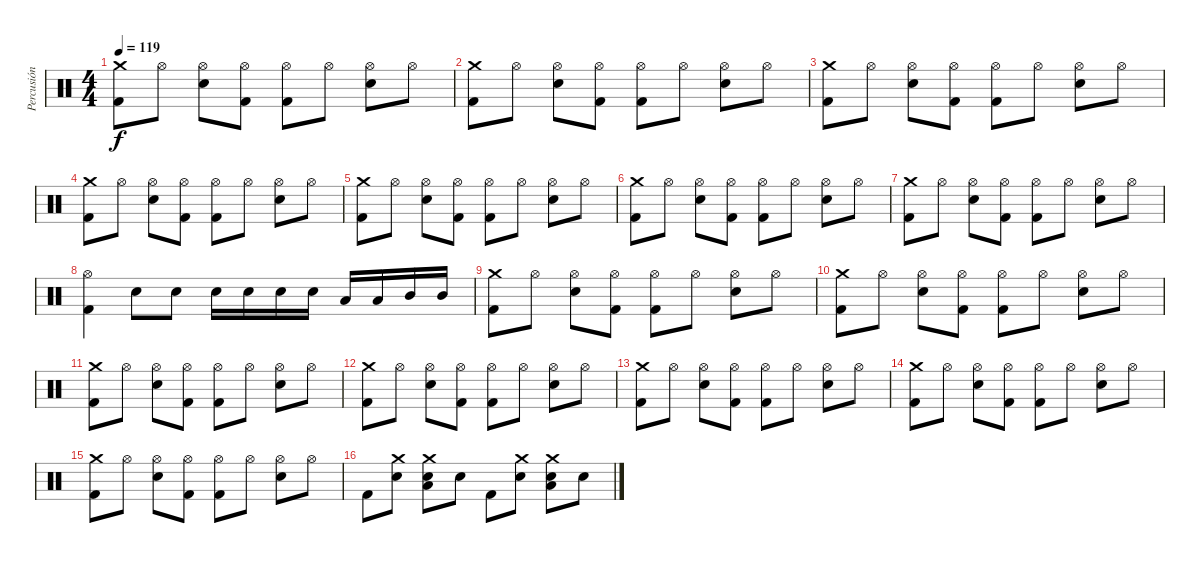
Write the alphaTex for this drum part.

\track ("Percusión" "Percusión") {instrument percussion}
\staff {score}
\articulation defaults
\ts (4 4)
\tempo 119
\clef neutral
\ks c
("Crash medium (hit)" "Kick (hit) 2").8{dy f} "Hi-Hat (open)".8 ("Hi-Hat (open)" "Electric Snare (hit)").8 ("Hi-Hat (open)" "Kick (hit) 2").8 ("Hi-Hat (open)" "Kick (hit) 2").8 "Hi-Hat (open)".8 ("Hi-Hat (open)" "Electric Snare (hit)").8 "Hi-Hat (open)".8 |
("Crash medium (hit)" "Kick (hit) 2").8 "Hi-Hat (open)".8 ("Hi-Hat (open)" "Electric Snare (hit)").8 ("Hi-Hat (open)" "Kick (hit) 2").8 ("Hi-Hat (open)" "Kick (hit) 2").8 "Hi-Hat (open)".8 ("Hi-Hat (open)" "Electric Snare (hit)").8 "Hi-Hat (open)".8 |
("Crash medium (hit)" "Kick (hit) 2").8 "Hi-Hat (open)".8 ("Hi-Hat (open)" "Electric Snare (hit)").8 ("Hi-Hat (open)" "Kick (hit) 2").8 ("Hi-Hat (open)" "Kick (hit) 2").8 "Hi-Hat (open)".8 ("Hi-Hat (open)" "Electric Snare (hit)").8 "Hi-Hat (open)".8 |
("Crash medium (hit)" "Kick (hit) 2").8 "Hi-Hat (open)".8 ("Hi-Hat (open)" "Electric Snare (hit)").8 ("Hi-Hat (open)" "Kick (hit) 2").8 ("Hi-Hat (open)" "Kick (hit) 2").8 "Hi-Hat (open)".8 ("Hi-Hat (open)" "Electric Snare (hit)").8 "Hi-Hat (open)".8 |
("Crash medium (hit)" "Kick (hit) 2").8 "Hi-Hat (open)".8 ("Hi-Hat (open)" "Electric Snare (hit)").8 ("Hi-Hat (open)" "Kick (hit) 2").8 ("Hi-Hat (open)" "Kick (hit) 2").8 "Hi-Hat (open)".8 ("Hi-Hat (open)" "Electric Snare (hit)").8 "Hi-Hat (open)".8 |
("Crash medium (hit)" "Kick (hit) 2").8 "Hi-Hat (open)".8 ("Hi-Hat (open)" "Electric Snare (hit)").8 ("Hi-Hat (open)" "Kick (hit) 2").8 ("Hi-Hat (open)" "Kick (hit) 2").8 "Hi-Hat (open)".8 ("Hi-Hat (open)" "Electric Snare (hit)").8 "Hi-Hat (open)".8 |
("Crash medium (hit)" "Kick (hit) 2").8 "Hi-Hat (open)".8 ("Hi-Hat (open)" "Electric Snare (hit)").8 ("Hi-Hat (open)" "Kick (hit) 2").8 ("Hi-Hat (open)" "Kick (hit) 2").8 "Hi-Hat (open)".8 ("Hi-Hat (open)" "Electric Snare (hit)").8 "Hi-Hat (open)".8 |
("Hi-Hat (open)" "Kick (hit) 2").4 "Electric Snare (hit)".8 "Electric Snare (hit)".8 "Electric Snare (hit)".16 "Electric Snare (hit)".16 "Electric Snare (hit)".16 "Electric Snare (hit)".16 "Low Tom (hit)".16 "Low Tom (hit)".16 "Mid Tom (hit)".16 "Mid Tom (hit)".16 |
("Crash medium (hit)" "Kick (hit) 2").8 "Hi-Hat (open)".8 ("Hi-Hat (open)" "Electric Snare (hit)").8 ("Hi-Hat (open)" "Kick (hit) 2").8 ("Hi-Hat (open)" "Kick (hit) 2").8 "Hi-Hat (open)".8 ("Hi-Hat (open)" "Electric Snare (hit)").8 "Hi-Hat (open)".8 |
("Crash medium (hit)" "Kick (hit) 2").8 "Hi-Hat (open)".8 ("Hi-Hat (open)" "Electric Snare (hit)").8 ("Hi-Hat (open)" "Kick (hit) 2").8 ("Hi-Hat (open)" "Kick (hit) 2").8 "Hi-Hat (open)".8 ("Hi-Hat (open)" "Electric Snare (hit)").8 "Hi-Hat (open)".8 |
("Crash medium (hit)" "Kick (hit) 2").8 "Hi-Hat (open)".8 ("Hi-Hat (open)" "Electric Snare (hit)").8 ("Hi-Hat (open)" "Kick (hit) 2").8 ("Hi-Hat (open)" "Kick (hit) 2").8 "Hi-Hat (open)".8 ("Hi-Hat (open)" "Electric Snare (hit)").8 "Hi-Hat (open)".8 |
("Crash medium (hit)" "Kick (hit) 2").8 "Hi-Hat (open)".8 ("Hi-Hat (open)" "Electric Snare (hit)").8 ("Hi-Hat (open)" "Kick (hit) 2").8 ("Hi-Hat (open)" "Kick (hit) 2").8 "Hi-Hat (open)".8 ("Hi-Hat (open)" "Electric Snare (hit)").8 "Hi-Hat (open)".8 |
("Crash medium (hit)" "Kick (hit) 2").8 "Hi-Hat (open)".8 ("Hi-Hat (open)" "Electric Snare (hit)").8 ("Hi-Hat (open)" "Kick (hit) 2").8 ("Hi-Hat (open)" "Kick (hit) 2").8 "Hi-Hat (open)".8 ("Hi-Hat (open)" "Electric Snare (hit)").8 "Hi-Hat (open)".8 |
("Crash medium (hit)" "Kick (hit) 2").8 "Hi-Hat (open)".8 ("Hi-Hat (open)" "Electric Snare (hit)").8 ("Hi-Hat (open)" "Kick (hit) 2").8 ("Hi-Hat (open)" "Kick (hit) 2").8 "Hi-Hat (open)".8 ("Hi-Hat (open)" "Electric Snare (hit)").8 "Hi-Hat (open)".8 |
("Crash medium (hit)" "Kick (hit) 2").8 "Hi-Hat (open)".8 ("Hi-Hat (open)" "Electric Snare (hit)").8 ("Hi-Hat (open)" "Kick (hit) 2").8 ("Hi-Hat (open)" "Kick (hit) 2").8 "Hi-Hat (open)".8 ("Hi-Hat (open)" "Electric Snare (hit)").8 "Hi-Hat (open)".8 |
"Kick (hit) 2".8 ("Crash medium (hit)" "Electric Snare (hit)").8 ("Crash medium (hit)" "Low Tom (hit)" "Electric Snare (hit)").8 "Electric Snare (hit)".8 "Kick (hit) 2".8 ("Crash medium (hit)" "Electric Snare (hit)").8 ("Crash medium (hit)" "Low Tom (hit)" "Electric Snare (hit)").8 "Electric Snare (hit)".8
